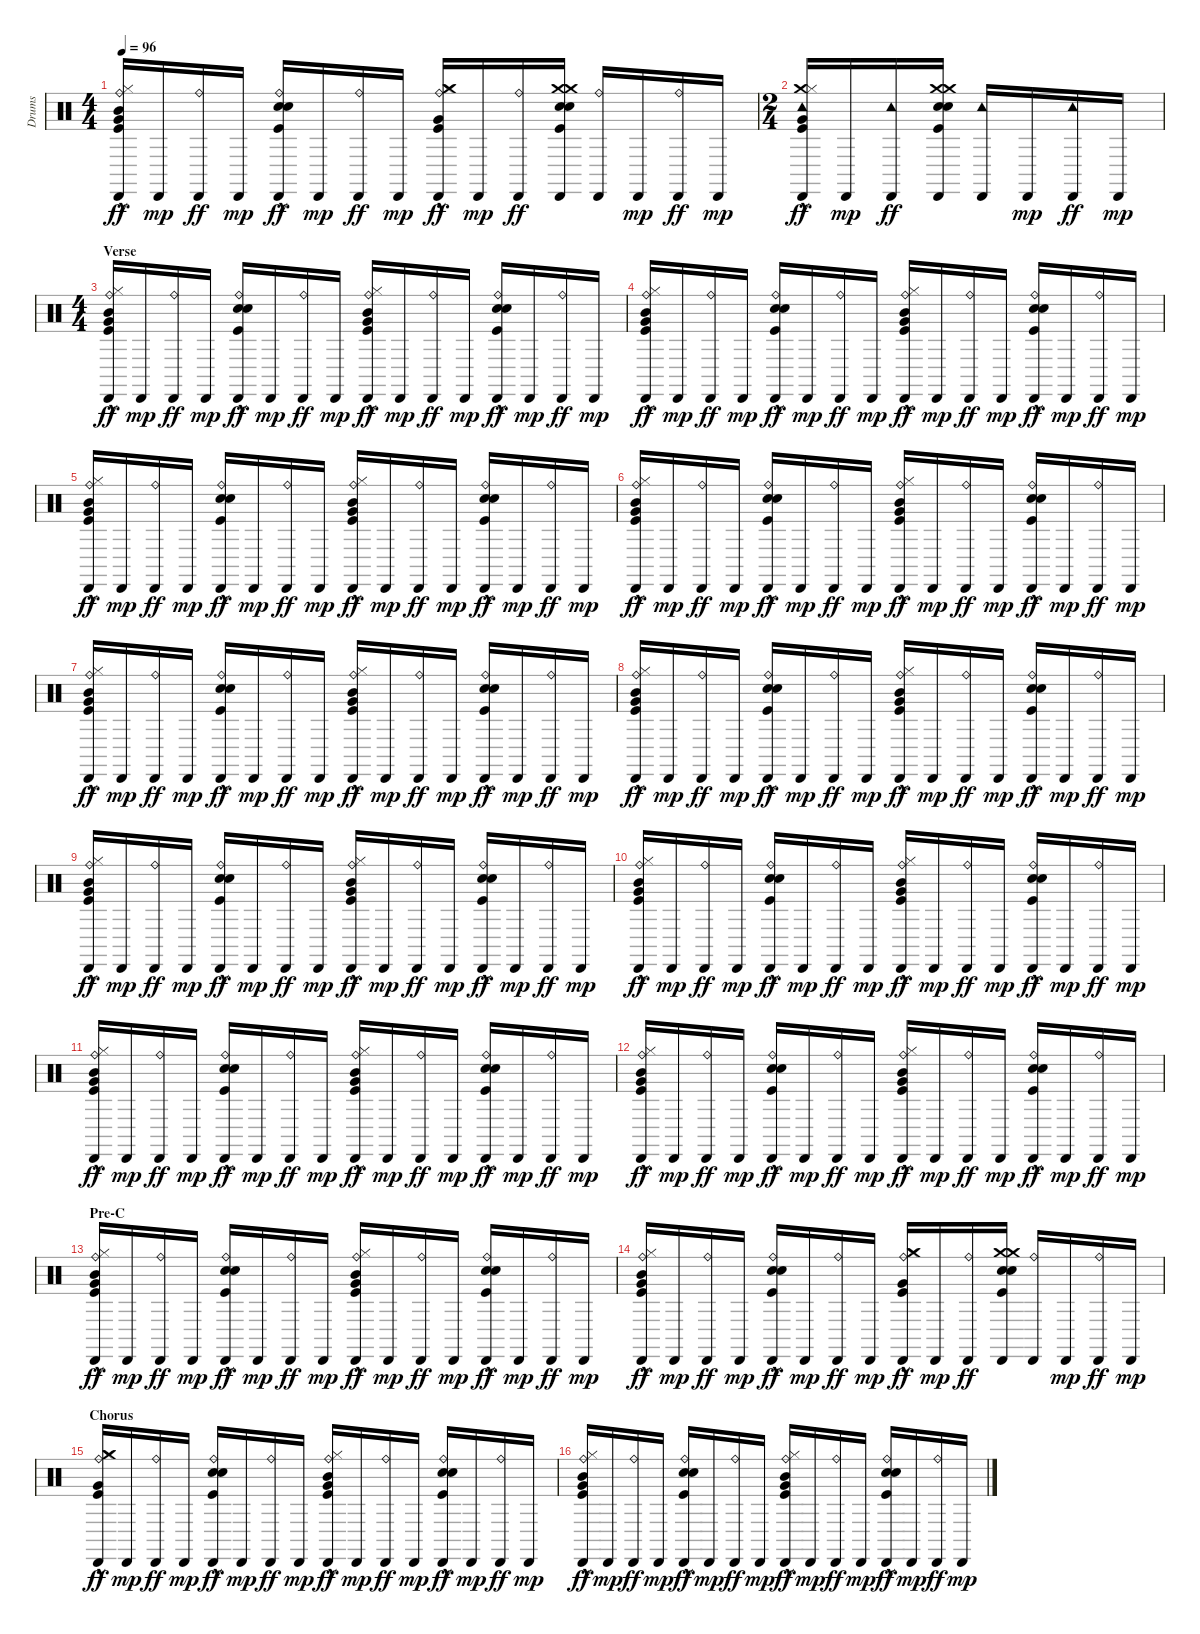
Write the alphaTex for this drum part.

\track ("Drums" "Drums") {instrument percussion}
\staff {score}
\articulation defaults
\ts (4 4)
\tempo 96
\clef neutral
\ks c
("Kick (hit)"{hac} "Hi-Hat (closed)"{hac} "Very Low Tom (hit)"{hac} "Cabasa (hit)" "Ride (bell)" "Mid Tom (hit)").16{dy ff} "Cabasa (hit)".16{dy mp} ("Cabasa (hit)" "Ride (bell)").16{dy ff} "Cabasa (hit)".16{dy mp} ("Kick (hit)"{hac} "Snare (hit) 2"{hac} "Electric Snare (hit)"{hac} "Cabasa (hit)" "Ride (bell)").16{dy ff} "Cabasa (hit)".16{dy mp} ("Cabasa (hit)" "Ride (bell)").16{dy ff} "Cabasa (hit)".16{dy mp} ("Crash medium (hit)"{hac} "Kick (hit)"{hac} "Hi-Hat (closed)"{hac} "Very Low Tom (hit)"{hac} "Cabasa (hit)" "Ride (bell)").16{dy ff} "Cabasa (hit)".16{dy mp} ("Cabasa (hit)" "Ride (bell)").16{dy ff} ("Crash medium (hit)" "Kick (hit)" "Snare (hit) 2" "Electric Snare (hit)" "Cabasa (hit)" "Crash medium (hit)").16 ("Cabasa (hit)" "Ride (bell)").16 "Cabasa (hit)".16{dy mp} ("Cabasa (hit)" "Ride (bell)").16{dy ff} "Cabasa (hit)".16{dy mp} |
\ts (2 4)
("Crash medium (hit)"{hac} "Kick (hit)"{hac} "Hi-Hat (closed)"{hac} "Very Low Tom (hit)"{hac} "Cabasa (hit)" "Tambourine (hit)").16{dy ff} "Cabasa (hit)".16{dy mp} ("Cabasa (hit)" "Tambourine (hit)").16{dy ff} ("Crash medium (hit)" "Kick (hit)" "Snare (hit) 2" "Electric Snare (hit)" "Cabasa (hit)" "Crash medium (hit)").16 ("Cabasa (hit)" "Tambourine (hit)").16 "Cabasa (hit)".16{dy mp} ("Cabasa (hit)" "Tambourine (hit)").16{dy ff} "Cabasa (hit)".16{dy mp} |
\ts (4 4)
\section ("" "Verse")
("Kick (hit)"{hac} "Hi-Hat (closed)"{hac} "Very Low Tom (hit)"{hac} "Cabasa (hit)" "Ride (bell)" "Mid Tom (hit)"{hac}).16{dy ff} "Cabasa (hit)".16{dy mp} ("Cabasa (hit)" "Ride (bell)").16{dy ff} "Cabasa (hit)".16{dy mp} ("Kick (hit)"{hac} "Snare (hit) 2"{hac} "Electric Snare (hit)"{hac} "Cabasa (hit)" "Ride (bell)").16{dy ff} "Cabasa (hit)".16{dy mp} ("Cabasa (hit)" "Ride (bell)").16{dy ff} "Cabasa (hit)".16{dy mp} ("Kick (hit)"{hac} "Hi-Hat (closed)"{hac} "Very Low Tom (hit)"{hac} "Cabasa (hit)" "Ride (bell)" "Mid Tom (hit)"{hac}).16{dy ff} "Cabasa (hit)".16{dy mp} ("Cabasa (hit)" "Ride (bell)").16{dy ff} "Cabasa (hit)".16{dy mp} ("Kick (hit)"{hac} "Snare (hit) 2"{hac} "Electric Snare (hit)"{hac} "Cabasa (hit)" "Ride (bell)").16{dy ff} "Cabasa (hit)".16{dy mp} ("Cabasa (hit)" "Ride (bell)").16{dy ff} "Cabasa (hit)".16{dy mp} |
("Kick (hit)"{hac} "Hi-Hat (closed)"{hac} "Very Low Tom (hit)"{hac} "Cabasa (hit)" "Ride (bell)" "Mid Tom (hit)"{hac}).16{dy ff} "Cabasa (hit)".16{dy mp} ("Cabasa (hit)" "Ride (bell)").16{dy ff} "Cabasa (hit)".16{dy mp} ("Kick (hit)"{hac} "Snare (hit) 2"{hac} "Electric Snare (hit)"{hac} "Cabasa (hit)" "Ride (bell)").16{dy ff} "Cabasa (hit)".16{dy mp} ("Cabasa (hit)" "Ride (bell)").16{dy ff} "Cabasa (hit)".16{dy mp} ("Kick (hit)"{hac} "Hi-Hat (closed)"{hac} "Very Low Tom (hit)"{hac} "Cabasa (hit)" "Ride (bell)" "Mid Tom (hit)"{hac}).16{dy ff} "Cabasa (hit)".16{dy mp} ("Cabasa (hit)" "Ride (bell)").16{dy ff} "Cabasa (hit)".16{dy mp} ("Kick (hit)"{hac} "Snare (hit) 2"{hac} "Electric Snare (hit)"{hac} "Cabasa (hit)" "Ride (bell)").16{dy ff} "Cabasa (hit)".16{dy mp} ("Cabasa (hit)" "Ride (bell)").16{dy ff} "Cabasa (hit)".16{dy mp} |
("Kick (hit)"{hac} "Hi-Hat (closed)"{hac} "Very Low Tom (hit)"{hac} "Cabasa (hit)" "Ride (bell)" "Mid Tom (hit)"{hac}).16{dy ff} "Cabasa (hit)".16{dy mp} ("Cabasa (hit)" "Ride (bell)").16{dy ff} "Cabasa (hit)".16{dy mp} ("Kick (hit)"{hac} "Snare (hit) 2"{hac} "Electric Snare (hit)"{hac} "Cabasa (hit)" "Ride (bell)").16{dy ff} "Cabasa (hit)".16{dy mp} ("Cabasa (hit)" "Ride (bell)").16{dy ff} "Cabasa (hit)".16{dy mp} ("Kick (hit)"{hac} "Hi-Hat (closed)"{hac} "Very Low Tom (hit)"{hac} "Cabasa (hit)" "Ride (bell)" "Mid Tom (hit)"{hac}).16{dy ff} "Cabasa (hit)".16{dy mp} ("Cabasa (hit)" "Ride (bell)").16{dy ff} "Cabasa (hit)".16{dy mp} ("Kick (hit)"{hac} "Snare (hit) 2"{hac} "Electric Snare (hit)"{hac} "Cabasa (hit)" "Ride (bell)").16{dy ff} "Cabasa (hit)".16{dy mp} ("Cabasa (hit)" "Ride (bell)").16{dy ff} "Cabasa (hit)".16{dy mp} |
("Kick (hit)"{hac} "Hi-Hat (closed)"{hac} "Very Low Tom (hit)"{hac} "Cabasa (hit)" "Ride (bell)" "Mid Tom (hit)"{hac}).16{dy ff} "Cabasa (hit)".16{dy mp} ("Cabasa (hit)" "Ride (bell)").16{dy ff} "Cabasa (hit)".16{dy mp} ("Kick (hit)"{hac} "Snare (hit) 2"{hac} "Electric Snare (hit)"{hac} "Cabasa (hit)" "Ride (bell)").16{dy ff} "Cabasa (hit)".16{dy mp} ("Cabasa (hit)" "Ride (bell)").16{dy ff} "Cabasa (hit)".16{dy mp} ("Kick (hit)"{hac} "Hi-Hat (closed)"{hac} "Very Low Tom (hit)"{hac} "Cabasa (hit)" "Ride (bell)" "Mid Tom (hit)"{hac}).16{dy ff} "Cabasa (hit)".16{dy mp} ("Cabasa (hit)" "Ride (bell)").16{dy ff} "Cabasa (hit)".16{dy mp} ("Kick (hit)"{hac} "Snare (hit) 2"{hac} "Electric Snare (hit)"{hac} "Cabasa (hit)" "Ride (bell)").16{dy ff} "Cabasa (hit)".16{dy mp} ("Cabasa (hit)" "Ride (bell)").16{dy ff} "Cabasa (hit)".16{dy mp} |
("Kick (hit)"{hac} "Hi-Hat (closed)"{hac} "Very Low Tom (hit)"{hac} "Cabasa (hit)" "Ride (bell)" "Mid Tom (hit)"{hac}).16{dy ff} "Cabasa (hit)".16{dy mp} ("Cabasa (hit)" "Ride (bell)").16{dy ff} "Cabasa (hit)".16{dy mp} ("Kick (hit)"{hac} "Snare (hit) 2"{hac} "Electric Snare (hit)"{hac} "Cabasa (hit)" "Ride (bell)").16{dy ff} "Cabasa (hit)".16{dy mp} ("Cabasa (hit)" "Ride (bell)").16{dy ff} "Cabasa (hit)".16{dy mp} ("Kick (hit)"{hac} "Hi-Hat (closed)"{hac} "Very Low Tom (hit)"{hac} "Cabasa (hit)" "Ride (bell)" "Mid Tom (hit)"{hac}).16{dy ff} "Cabasa (hit)".16{dy mp} ("Cabasa (hit)" "Ride (bell)").16{dy ff} "Cabasa (hit)".16{dy mp} ("Kick (hit)"{hac} "Snare (hit) 2"{hac} "Electric Snare (hit)"{hac} "Cabasa (hit)" "Ride (bell)").16{dy ff} "Cabasa (hit)".16{dy mp} ("Cabasa (hit)" "Ride (bell)").16{dy ff} "Cabasa (hit)".16{dy mp} |
("Kick (hit)"{hac} "Hi-Hat (closed)"{hac} "Very Low Tom (hit)"{hac} "Cabasa (hit)" "Ride (bell)" "Mid Tom (hit)"{hac}).16{dy ff} "Cabasa (hit)".16{dy mp} ("Cabasa (hit)" "Ride (bell)").16{dy ff} "Cabasa (hit)".16{dy mp} ("Kick (hit)"{hac} "Snare (hit) 2"{hac} "Electric Snare (hit)"{hac} "Cabasa (hit)" "Ride (bell)").16{dy ff} "Cabasa (hit)".16{dy mp} ("Cabasa (hit)" "Ride (bell)").16{dy ff} "Cabasa (hit)".16{dy mp} ("Kick (hit)"{hac} "Hi-Hat (closed)"{hac} "Very Low Tom (hit)"{hac} "Cabasa (hit)" "Ride (bell)" "Mid Tom (hit)"{hac}).16{dy ff} "Cabasa (hit)".16{dy mp} ("Cabasa (hit)" "Ride (bell)").16{dy ff} "Cabasa (hit)".16{dy mp} ("Kick (hit)"{hac} "Snare (hit) 2"{hac} "Electric Snare (hit)"{hac} "Cabasa (hit)" "Ride (bell)").16{dy ff} "Cabasa (hit)".16{dy mp} ("Cabasa (hit)" "Ride (bell)").16{dy ff} "Cabasa (hit)".16{dy mp} |
("Kick (hit)"{hac} "Hi-Hat (closed)"{hac} "Very Low Tom (hit)"{hac} "Cabasa (hit)" "Ride (bell)" "Mid Tom (hit)"{hac}).16{dy ff} "Cabasa (hit)".16{dy mp} ("Cabasa (hit)" "Ride (bell)").16{dy ff} "Cabasa (hit)".16{dy mp} ("Kick (hit)"{hac} "Snare (hit) 2"{hac} "Electric Snare (hit)"{hac} "Cabasa (hit)" "Ride (bell)").16{dy ff} "Cabasa (hit)".16{dy mp} ("Cabasa (hit)" "Ride (bell)").16{dy ff} "Cabasa (hit)".16{dy mp} ("Kick (hit)"{hac} "Hi-Hat (closed)"{hac} "Very Low Tom (hit)"{hac} "Cabasa (hit)" "Ride (bell)" "Mid Tom (hit)"{hac}).16{dy ff} "Cabasa (hit)".16{dy mp} ("Cabasa (hit)" "Ride (bell)").16{dy ff} "Cabasa (hit)".16{dy mp} ("Kick (hit)"{hac} "Snare (hit) 2"{hac} "Electric Snare (hit)"{hac} "Cabasa (hit)" "Ride (bell)").16{dy ff} "Cabasa (hit)".16{dy mp} ("Cabasa (hit)" "Ride (bell)").16{dy ff} "Cabasa (hit)".16{dy mp} |
("Kick (hit)"{hac} "Hi-Hat (closed)"{hac} "Very Low Tom (hit)"{hac} "Cabasa (hit)" "Ride (bell)" "Mid Tom (hit)"{hac}).16{dy ff} "Cabasa (hit)".16{dy mp} ("Cabasa (hit)" "Ride (bell)").16{dy ff} "Cabasa (hit)".16{dy mp} ("Kick (hit)"{hac} "Snare (hit) 2"{hac} "Electric Snare (hit)"{hac} "Cabasa (hit)" "Ride (bell)").16{dy ff} "Cabasa (hit)".16{dy mp} ("Cabasa (hit)" "Ride (bell)").16{dy ff} "Cabasa (hit)".16{dy mp} ("Kick (hit)"{hac} "Hi-Hat (closed)"{hac} "Very Low Tom (hit)"{hac} "Cabasa (hit)" "Ride (bell)" "Mid Tom (hit)"{hac}).16{dy ff} "Cabasa (hit)".16{dy mp} ("Cabasa (hit)" "Ride (bell)").16{dy ff} "Cabasa (hit)".16{dy mp} ("Kick (hit)"{hac} "Snare (hit) 2"{hac} "Electric Snare (hit)"{hac} "Cabasa (hit)" "Ride (bell)").16{dy ff} "Cabasa (hit)".16{dy mp} ("Cabasa (hit)" "Ride (bell)").16{dy ff} "Cabasa (hit)".16{dy mp} |
("Kick (hit)"{hac} "Hi-Hat (closed)"{hac} "Very Low Tom (hit)"{hac} "Cabasa (hit)" "Ride (bell)" "Mid Tom (hit)"{hac}).16{dy ff} "Cabasa (hit)".16{dy mp} ("Cabasa (hit)" "Ride (bell)").16{dy ff} "Cabasa (hit)".16{dy mp} ("Kick (hit)"{hac} "Snare (hit) 2"{hac} "Electric Snare (hit)"{hac} "Cabasa (hit)" "Ride (bell)").16{dy ff} "Cabasa (hit)".16{dy mp} ("Cabasa (hit)" "Ride (bell)").16{dy ff} "Cabasa (hit)".16{dy mp} ("Kick (hit)"{hac} "Hi-Hat (closed)"{hac} "Very Low Tom (hit)"{hac} "Cabasa (hit)" "Ride (bell)" "Mid Tom (hit)"{hac}).16{dy ff} "Cabasa (hit)".16{dy mp} ("Cabasa (hit)" "Ride (bell)").16{dy ff} "Cabasa (hit)".16{dy mp} ("Kick (hit)"{hac} "Snare (hit) 2"{hac} "Electric Snare (hit)"{hac} "Cabasa (hit)" "Ride (bell)").16{dy ff} "Cabasa (hit)".16{dy mp} ("Cabasa (hit)" "Ride (bell)").16{dy ff} "Cabasa (hit)".16{dy mp} |
("Kick (hit)"{hac} "Hi-Hat (closed)"{hac} "Very Low Tom (hit)"{hac} "Cabasa (hit)" "Ride (bell)" "Mid Tom (hit)"{hac}).16{dy ff} "Cabasa (hit)".16{dy mp} ("Cabasa (hit)" "Ride (bell)").16{dy ff} "Cabasa (hit)".16{dy mp} ("Kick (hit)"{hac} "Snare (hit) 2"{hac} "Electric Snare (hit)"{hac} "Cabasa (hit)" "Ride (bell)").16{dy ff} "Cabasa (hit)".16{dy mp} ("Cabasa (hit)" "Ride (bell)").16{dy ff} "Cabasa (hit)".16{dy mp} ("Kick (hit)"{hac} "Hi-Hat (closed)"{hac} "Very Low Tom (hit)"{hac} "Cabasa (hit)" "Ride (bell)" "Mid Tom (hit)"{hac}).16{dy ff} "Cabasa (hit)".16{dy mp} ("Cabasa (hit)" "Ride (bell)").16{dy ff} "Cabasa (hit)".16{dy mp} ("Kick (hit)"{hac} "Snare (hit) 2"{hac} "Electric Snare (hit)"{hac} "Cabasa (hit)" "Ride (bell)").16{dy ff} "Cabasa (hit)".16{dy mp} ("Cabasa (hit)" "Ride (bell)").16{dy ff} "Cabasa (hit)".16{dy mp} |
\section ("" "Pre-C")
("Kick (hit)"{hac} "Hi-Hat (closed)"{hac} "Very Low Tom (hit)"{hac} "Cabasa (hit)" "Ride (bell)" "Mid Tom (hit)"{hac}).16{dy ff} "Cabasa (hit)".16{dy mp} ("Cabasa (hit)" "Ride (bell)").16{dy ff} "Cabasa (hit)".16{dy mp} ("Kick (hit)"{hac} "Snare (hit) 2"{hac} "Electric Snare (hit)"{hac} "Cabasa (hit)" "Ride (bell)").16{dy ff} "Cabasa (hit)".16{dy mp} ("Cabasa (hit)" "Ride (bell)").16{dy ff} "Cabasa (hit)".16{dy mp} ("Kick (hit)"{hac} "Hi-Hat (closed)"{hac} "Very Low Tom (hit)"{hac} "Cabasa (hit)" "Ride (bell)" "Mid Tom (hit)"{hac}).16{dy ff} "Cabasa (hit)".16{dy mp} ("Cabasa (hit)" "Ride (bell)").16{dy ff} "Cabasa (hit)".16{dy mp} ("Kick (hit)"{hac} "Snare (hit) 2"{hac} "Electric Snare (hit)"{hac} "Cabasa (hit)" "Ride (bell)").16{dy ff} "Cabasa (hit)".16{dy mp} ("Cabasa (hit)" "Ride (bell)").16{dy ff} "Cabasa (hit)".16{dy mp} |
("Kick (hit)"{hac} "Hi-Hat (closed)"{hac} "Very Low Tom (hit)"{hac} "Cabasa (hit)" "Ride (bell)" "Mid Tom (hit)").16{dy ff} "Cabasa (hit)".16{dy mp} ("Cabasa (hit)" "Ride (bell)").16{dy ff} "Cabasa (hit)".16{dy mp} ("Kick (hit)"{hac} "Snare (hit) 2"{hac} "Electric Snare (hit)"{hac} "Cabasa (hit)" "Ride (bell)").16{dy ff} "Cabasa (hit)".16{dy mp} ("Cabasa (hit)" "Ride (bell)").16{dy ff} "Cabasa (hit)".16{dy mp} ("Crash medium (hit)"{hac} "Kick (hit)"{hac} "Hi-Hat (closed)"{hac} "Very Low Tom (hit)"{hac} "Cabasa (hit)" "Ride (bell)").16{dy ff} "Cabasa (hit)".16{dy mp} ("Cabasa (hit)" "Ride (bell)").16{dy ff} ("Crash medium (hit)" "Kick (hit)" "Snare (hit) 2" "Electric Snare (hit)" "Cabasa (hit)" "Crash medium (hit)").16 ("Cabasa (hit)" "Ride (bell)").16 "Cabasa (hit)".16{dy mp} ("Cabasa (hit)" "Ride (bell)").16{dy ff} "Cabasa (hit)".16{dy mp} |
\section ("" "Chorus")
("Crash medium (hit)"{hac} "Kick (hit)"{hac} "Hi-Hat (closed)"{hac} "Very Low Tom (hit)"{hac} "Cabasa (hit)" "Ride (bell)").16{dy ff} "Cabasa (hit)".16{dy mp} ("Cabasa (hit)" "Ride (bell)").16{dy ff} "Cabasa (hit)".16{dy mp} ("Kick (hit)"{hac} "Snare (hit) 2"{hac} "Electric Snare (hit)"{hac} "Cabasa (hit)" "Ride (bell)").16{dy ff} "Cabasa (hit)".16{dy mp} ("Cabasa (hit)" "Ride (bell)").16{dy ff} "Cabasa (hit)".16{dy mp} ("Kick (hit)"{hac} "Hi-Hat (closed)"{hac} "Very Low Tom (hit)"{hac} "Cabasa (hit)" "Ride (bell)" "Mid Tom (hit)"{hac}).16{dy ff} "Cabasa (hit)".16{dy mp} ("Cabasa (hit)" "Ride (bell)").16{dy ff} "Cabasa (hit)".16{dy mp} ("Kick (hit)"{hac} "Snare (hit) 2"{hac} "Electric Snare (hit)"{hac} "Cabasa (hit)" "Ride (bell)").16{dy ff} "Cabasa (hit)".16{dy mp} ("Cabasa (hit)" "Ride (bell)").16{dy ff} "Cabasa (hit)".16{dy mp} |
("Kick (hit)"{hac} "Hi-Hat (closed)"{hac} "Very Low Tom (hit)"{hac} "Cabasa (hit)" "Ride (bell)" "Mid Tom (hit)"{hac}).16{dy ff} "Cabasa (hit)".16{dy mp} ("Cabasa (hit)" "Ride (bell)").16{dy ff} "Cabasa (hit)".16{dy mp} ("Kick (hit)"{hac} "Snare (hit) 2"{hac} "Electric Snare (hit)"{hac} "Cabasa (hit)" "Ride (bell)").16{dy ff} "Cabasa (hit)".16{dy mp} ("Cabasa (hit)" "Ride (bell)").16{dy ff} "Cabasa (hit)".16{dy mp} ("Kick (hit)"{hac} "Hi-Hat (closed)"{hac} "Very Low Tom (hit)"{hac} "Cabasa (hit)" "Ride (bell)" "Mid Tom (hit)"{hac}).16{dy ff} "Cabasa (hit)".16{dy mp} ("Cabasa (hit)" "Ride (bell)").16{dy ff} "Cabasa (hit)".16{dy mp} ("Kick (hit)"{hac} "Snare (hit) 2"{hac} "Electric Snare (hit)"{hac} "Cabasa (hit)" "Ride (bell)").16{dy ff} "Cabasa (hit)".16{dy mp} ("Cabasa (hit)" "Ride (bell)").16{dy ff} "Cabasa (hit)".16{dy mp}
